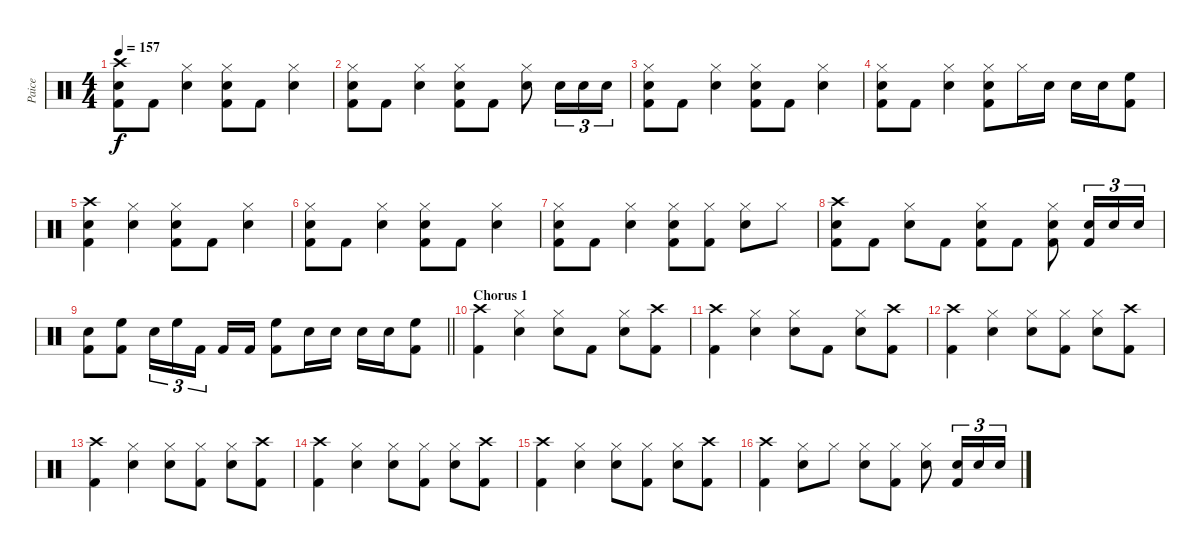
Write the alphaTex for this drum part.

\track ("Paice" "Paice") {instrument percussion}
\staff {score}
\articulation defaults
\ts (4 4)
\tempo 157
\clef neutral
\ks c
("Crash high (hit)" "Snare (hit) 2" "Kick (hit) 2").8{dy f} "Kick (hit) 2".8 ("Hi-Hat (closed)" "Snare (hit) 2").4 ("Hi-Hat (closed)" "Snare (hit) 2" "Kick (hit) 2").8 "Kick (hit) 2".8 ("Hi-Hat (closed)" "Snare (hit) 2").4 |
("Hi-Hat (closed)" "Snare (hit) 2" "Kick (hit) 2").8 "Kick (hit) 2".8 ("Hi-Hat (closed)" "Snare (hit) 2").4 ("Hi-Hat (closed)" "Snare (hit) 2" "Kick (hit) 2").8 "Kick (hit) 2".8 ("Hi-Hat (closed)" "Snare (hit) 2").8 "Snare (hit) 2".16{tu (3 2)} "Snare (hit) 2".16{tu (3 2)} "Snare (hit) 2".16{tu (3 2)} |
("Hi-Hat (closed)" "Snare (hit) 2" "Kick (hit) 2").8 "Kick (hit) 2".8 ("Hi-Hat (closed)" "Snare (hit) 2").4 ("Hi-Hat (closed)" "Snare (hit) 2" "Kick (hit) 2").8 "Kick (hit) 2".8 ("Hi-Hat (closed)" "Snare (hit) 2").4 |
("Hi-Hat (closed)" "Snare (hit) 2" "Kick (hit) 2").8 "Kick (hit) 2".8 ("Hi-Hat (closed)" "Snare (hit) 2").4 ("Hi-Hat (closed)" "Snare (hit) 2" "Kick (hit) 2").8 "Hi-Hat (closed)".16 "Snare (hit) 2".16 "Snare (hit) 2".16 "Snare (hit) 2".16 ("High Floor Tom (hit)" "Kick (hit) 2").8 |
("Crash high (hit)" "Snare (hit) 2" "Kick (hit) 2").4 ("Hi-Hat (closed)" "Snare (hit) 2").4 ("Hi-Hat (closed)" "Snare (hit) 2" "Kick (hit) 2").8 "Kick (hit) 2".8 ("Hi-Hat (closed)" "Snare (hit) 2").4 |
("Hi-Hat (closed)" "Snare (hit) 2" "Kick (hit) 2").8 "Kick (hit) 2".8 ("Hi-Hat (closed)" "Snare (hit) 2").4 ("Hi-Hat (closed)" "Snare (hit) 2" "Kick (hit) 2").8 "Kick (hit) 2".8 ("Hi-Hat (closed)" "Snare (hit) 2").4 |
("Hi-Hat (closed)" "Snare (hit) 2" "Kick (hit) 2").8 "Kick (hit) 2".8 ("Hi-Hat (closed)" "Snare (hit) 2").4 ("Hi-Hat (closed)" "Snare (hit) 2" "Kick (hit) 2").8 ("Hi-Hat (closed)" "Kick (hit) 2").8 ("Hi-Hat (closed)" "Snare (hit) 2").8 "Hi-Hat (closed)".8 |
("Crash high (hit)" "Snare (hit) 2" "Kick (hit) 2").8 "Kick (hit) 2".8 ("Hi-Hat (closed)" "Snare (hit) 2").8 "Kick (hit) 2".8 ("Hi-Hat (closed)" "Snare (hit) 2" "Kick (hit) 2").8 "Kick (hit) 2".8 ("Hi-Hat (closed)" "Snare (hit) 2" "Kick (hit) 2").8 ("Snare (hit) 2" "Kick (hit) 2").16{tu (3 2)} "Snare (hit) 2".16{tu (3 2)} "Snare (hit) 2".16{tu (3 2)} |
\barLineRight lightlight
("Snare (hit) 2" "Kick (hit) 2").8 ("High Floor Tom (hit)" "Kick (hit) 2").8 "Snare (hit) 2".16{tu (3 2)} "High Floor Tom (hit)".16{tu (3 2)} "Kick (hit) 2".16{tu (3 2)} "Kick (hit) 2".16 "Kick (hit) 2".16 ("High Floor Tom (hit)" "Kick (hit) 2").8 "Snare (hit) 2".16 "Snare (hit) 2".16 "Snare (hit) 2".16 "Snare (hit) 2".16 ("High Floor Tom (hit)" "Kick (hit) 2").8 |
\section ("" "Chorus 1")
("Crash high (hit)" "Kick (hit) 2").4 ("Hi-Hat (closed)" "Snare (hit) 2").4 ("Hi-Hat (closed)" "Snare (hit) 2").8 "Kick (hit) 2".8 ("Hi-Hat (closed)" "Snare (hit) 2").8 ("Crash high (hit)" "Kick (hit) 2").8 |
("Crash high (hit)" "Kick (hit) 2").4 ("Hi-Hat (closed)" "Snare (hit) 2").4 ("Hi-Hat (closed)" "Snare (hit) 2").8 "Kick (hit) 2".8 ("Hi-Hat (closed)" "Snare (hit) 2").8 ("Crash high (hit)" "Kick (hit) 2").8 |
("Crash high (hit)" "Kick (hit) 2").4 ("Hi-Hat (closed)" "Snare (hit) 2").4 ("Hi-Hat (closed)" "Snare (hit) 2").8 ("Hi-Hat (closed)" "Kick (hit) 2").8 ("Hi-Hat (closed)" "Snare (hit) 2").8 ("Crash high (hit)" "Kick (hit) 2").8 |
("Crash high (hit)" "Kick (hit) 2").4 ("Hi-Hat (closed)" "Snare (hit) 2").4 ("Hi-Hat (closed)" "Snare (hit) 2").8 ("Hi-Hat (closed)" "Kick (hit) 2").8 ("Hi-Hat (closed)" "Snare (hit) 2").8 ("Crash high (hit)" "Kick (hit) 2").8 |
("Crash high (hit)" "Kick (hit) 2").4 ("Hi-Hat (closed)" "Snare (hit) 2").4 ("Hi-Hat (closed)" "Snare (hit) 2").8 ("Hi-Hat (closed)" "Kick (hit) 2").8 ("Hi-Hat (closed)" "Snare (hit) 2").8 ("Crash high (hit)" "Kick (hit) 2").8 |
("Crash high (hit)" "Kick (hit) 2").4 ("Hi-Hat (closed)" "Snare (hit) 2").4 ("Hi-Hat (closed)" "Snare (hit) 2").8 ("Hi-Hat (closed)" "Kick (hit) 2").8 ("Hi-Hat (closed)" "Snare (hit) 2").8 ("Crash high (hit)" "Kick (hit) 2").8 |
("Crash high (hit)" "Kick (hit) 2").4 ("Hi-Hat (closed)" "Snare (hit) 2").8 "Hi-Hat (closed)".8 ("Hi-Hat (closed)" "Snare (hit) 2").8 ("Hi-Hat (closed)" "Kick (hit) 2").8 ("Hi-Hat (closed)" "Snare (hit) 2").8 ("Snare (hit) 2" "Kick (hit) 2").16{tu (3 2)} "Snare (hit) 2".16{tu (3 2)} "Snare (hit) 2".16{tu (3 2)}
